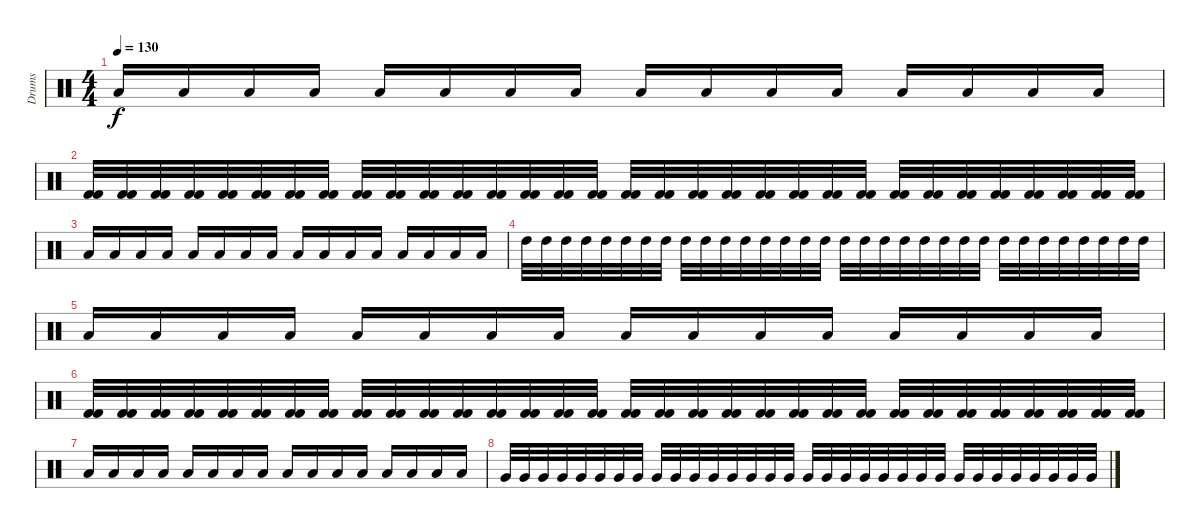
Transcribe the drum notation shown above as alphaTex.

\track ("Drums" "Drums") {instrument percussion}
\staff {score}
\articulation defaults
\ts (4 4)
\tempo 130
\clef neutral
\ks c "Low Tom (hit)".16{dy f} "Low Tom (hit)".16 "Low Tom (hit)".16 "Low Tom (hit)".16 "Low Tom (hit)".16 "Low Tom (hit)".16 "Low Tom (hit)".16 "Low Tom (hit)".16 "Low Tom (hit)".16 "Low Tom (hit)".16 "Low Tom (hit)".16 "Low Tom (hit)".16 "Low Tom (hit)".16 "Low Tom (hit)".16 "Low Tom (hit)".16 "Low Tom (hit)".16
|
("Kick (hit) 2" "Kick (hit) 2").32 ("Kick (hit) 2" "Kick (hit) 2").32 ("Kick (hit) 2" "Kick (hit) 2").32 ("Kick (hit) 2" "Kick (hit) 2").32 ("Kick (hit) 2" "Kick (hit) 2").32 ("Kick (hit) 2" "Kick (hit) 2").32 ("Kick (hit) 2" "Kick (hit) 2").32 ("Kick (hit) 2" "Kick (hit) 2").32 ("Kick (hit) 2" "Kick (hit) 2").32 ("Kick (hit) 2" "Kick (hit) 2").32 ("Kick (hit) 2" "Kick (hit) 2").32 ("Kick (hit) 2" "Kick (hit) 2").32 ("Kick (hit) 2" "Kick (hit) 2").32 ("Kick (hit) 2" "Kick (hit) 2").32 ("Kick (hit) 2" "Kick (hit) 2").32 ("Kick (hit) 2" "Kick (hit) 2").32 ("Kick (hit) 2" "Kick (hit) 2").32 ("Kick (hit) 2" "Kick (hit) 2").32 ("Kick (hit) 2" "Kick (hit) 2").32 ("Kick (hit) 2" "Kick (hit) 2").32 ("Kick (hit) 2" "Kick (hit) 2").32 ("Kick (hit) 2" "Kick (hit) 2").32 ("Kick (hit) 2" "Kick (hit) 2").32 ("Kick (hit) 2" "Kick (hit) 2").32 ("Kick (hit) 2" "Kick (hit) 2").32 ("Kick (hit) 2" "Kick (hit) 2").32 ("Kick (hit) 2" "Kick (hit) 2").32 ("Kick (hit) 2" "Kick (hit) 2").32 ("Kick (hit) 2" "Kick (hit) 2").32 ("Kick (hit) 2" "Kick (hit) 2").32 ("Kick (hit) 2" "Kick (hit) 2").32 ("Kick (hit) 2" "Kick (hit) 2").32 |
"Low Tom (hit)".16 "Low Tom (hit)".16 "Low Tom (hit)".16 "Low Tom (hit)".16 "Low Tom (hit)".16 "Low Tom (hit)".16 "Low Tom (hit)".16 "Low Tom (hit)".16 "Low Tom (hit)".16 "Low Tom (hit)".16 "Low Tom (hit)".16 "Low Tom (hit)".16 "Low Tom (hit)".16 "Low Tom (hit)".16 "Low Tom (hit)".16 "Low Tom (hit)".16 |
"High Tom (hit)".32 "High Tom (hit)".32 "High Tom (hit)".32 "High Tom (hit)".32 "High Tom (hit)".32 "High Tom (hit)".32 "High Tom (hit)".32 "High Tom (hit)".32 "High Tom (hit)".32 "High Tom (hit)".32 "High Tom (hit)".32 "High Tom (hit)".32 "High Tom (hit)".32 "High Tom (hit)".32 "High Tom (hit)".32 "High Tom (hit)".32 "High Tom (hit)".32 "High Tom (hit)".32 "High Tom (hit)".32 "High Tom (hit)".32 "High Tom (hit)".32 "High Tom (hit)".32 "High Tom (hit)".32 "High Tom (hit)".32 "High Tom (hit)".32 "High Tom (hit)".32 "High Tom (hit)".32 "High Tom (hit)".32 "High Tom (hit)".32 "High Tom (hit)".32 "High Tom (hit)".32 "High Tom (hit)".32 |
"Low Tom (hit)".16 "Low Tom (hit)".16 "Low Tom (hit)".16 "Low Tom (hit)".16 "Low Tom (hit)".16 "Low Tom (hit)".16 "Low Tom (hit)".16 "Low Tom (hit)".16 "Low Tom (hit)".16 "Low Tom (hit)".16 "Low Tom (hit)".16 "Low Tom (hit)".16 "Low Tom (hit)".16 "Low Tom (hit)".16 "Low Tom (hit)".16 "Low Tom (hit)".16 |
("Kick (hit) 2" "Kick (hit) 2").32 ("Kick (hit) 2" "Kick (hit) 2").32 ("Kick (hit) 2" "Kick (hit) 2").32 ("Kick (hit) 2" "Kick (hit) 2").32 ("Kick (hit) 2" "Kick (hit) 2").32 ("Kick (hit) 2" "Kick (hit) 2").32 ("Kick (hit) 2" "Kick (hit) 2").32 ("Kick (hit) 2" "Kick (hit) 2").32 ("Kick (hit) 2" "Kick (hit) 2").32 ("Kick (hit) 2" "Kick (hit) 2").32 ("Kick (hit) 2" "Kick (hit) 2").32 ("Kick (hit) 2" "Kick (hit) 2").32 ("Kick (hit) 2" "Kick (hit) 2").32 ("Kick (hit) 2" "Kick (hit) 2").32 ("Kick (hit) 2" "Kick (hit) 2").32 ("Kick (hit) 2" "Kick (hit) 2").32 ("Kick (hit) 2" "Kick (hit) 2").32 ("Kick (hit) 2" "Kick (hit) 2").32 ("Kick (hit) 2" "Kick (hit) 2").32 ("Kick (hit) 2" "Kick (hit) 2").32 ("Kick (hit) 2" "Kick (hit) 2").32 ("Kick (hit) 2" "Kick (hit) 2").32 ("Kick (hit) 2" "Kick (hit) 2").32 ("Kick (hit) 2" "Kick (hit) 2").32 ("Kick (hit) 2" "Kick (hit) 2").32 ("Kick (hit) 2" "Kick (hit) 2").32 ("Kick (hit) 2" "Kick (hit) 2").32 ("Kick (hit) 2" "Kick (hit) 2").32 ("Kick (hit) 2" "Kick (hit) 2").32 ("Kick (hit) 2" "Kick (hit) 2").32 ("Kick (hit) 2" "Kick (hit) 2").32 ("Kick (hit) 2" "Kick (hit) 2").32 |
"Low Tom (hit)".16 "Low Tom (hit)".16 "Low Tom (hit)".16 "Low Tom (hit)".16 "Low Tom (hit)".16 "Low Tom (hit)".16 "Low Tom (hit)".16 "Low Tom (hit)".16 "Low Tom (hit)".16 "Low Tom (hit)".16 "Low Tom (hit)".16 "Low Tom (hit)".16 "Low Tom (hit)".16 "Low Tom (hit)".16 "Low Tom (hit)".16 "Low Tom (hit)".16 |
"Very Low Tom (hit)".32 "Very Low Tom (hit)".32 "Very Low Tom (hit)".32 "Very Low Tom (hit)".32 "Very Low Tom (hit)".32 "Very Low Tom (hit)".32 "Very Low Tom (hit)".32 "Very Low Tom (hit)".32 "Very Low Tom (hit)".32 "Very Low Tom (hit)".32 "Very Low Tom (hit)".32 "Very Low Tom (hit)".32 "Very Low Tom (hit)".32 "Very Low Tom (hit)".32 "Very Low Tom (hit)".32 "Very Low Tom (hit)".32 "Very Low Tom (hit)".32 "Very Low Tom (hit)".32 "Very Low Tom (hit)".32 "Very Low Tom (hit)".32 "Very Low Tom (hit)".32 "Very Low Tom (hit)".32 "Very Low Tom (hit)".32 "Very Low Tom (hit)".32 "Very Low Tom (hit)".32 "Very Low Tom (hit)".32 "Very Low Tom (hit)".32 "Very Low Tom (hit)".32 "Very Low Tom (hit)".32 "Very Low Tom (hit)".32 "Very Low Tom (hit)".32 "Very Low Tom (hit)".32
